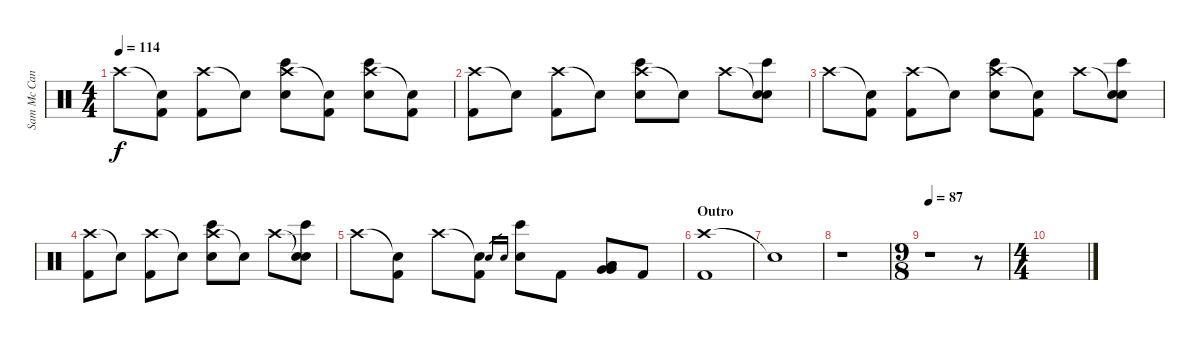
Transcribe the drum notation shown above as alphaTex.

\track ("Sam Mc Candless (Drums)" "Sam Mc Can") {instrument percussion}
\staff {score}
\articulation defaults
\ts (4 4)
\tempo 114
\clef neutral
\ks c "Crash high (hit)".8{dy f}
("Snare (hit)"{t} "Kick (hit) 2").8 ("Crash high (hit)" "Kick (hit) 2").8 "Snare (hit)"{t}.8 ("Crash high (hit)" "Electric Snare (hit)" "Bongo High (hit)").8 ("Snare (hit)"{t} "Kick (hit) 2").8 ("Crash high (hit)" "Electric Snare (hit)" "Bongo High (hit)").8 ("Snare (hit)"{t} "Kick (hit) 2").8 |
("Crash high (hit)" "Kick (hit) 2").8 "Snare (hit)"{t}.8 ("Crash high (hit)" "Kick (hit) 2").8 "Snare (hit)"{t}.8 ("Crash high (hit)" "Electric Snare (hit)" "Bongo High (hit)").8 "Snare (hit)"{t}.8 "Crash high (hit)".8 ("Snare (hit)"{t} "Electric Snare (hit)" "Bongo High (hit)").8 |
"Crash high (hit)".8 ("Snare (hit)"{t} "Kick (hit) 2").8 ("Crash high (hit)" "Kick (hit) 2").8 "Snare (hit)"{t}.8 ("Crash high (hit)" "Electric Snare (hit)" "Bongo High (hit)").8 ("Snare (hit)"{t} "Kick (hit) 2").8 "Crash high (hit)".8 ("Snare (hit)"{t} "Electric Snare (hit)" "Bongo High (hit)").8 |
("Crash high (hit)" "Kick (hit) 2").8 "Snare (hit)"{t}.8 ("Crash high (hit)" "Kick (hit) 2").8 "Snare (hit)"{t}.8 ("Crash high (hit)" "Electric Snare (hit)" "Bongo High (hit)").8 "Snare (hit)"{t}.8 "Crash high (hit)".8 ("Snare (hit)"{t} "Electric Snare (hit)" "Bongo High (hit)").8 |
"Crash high (hit)".8 ("Snare (hit)"{t} "Kick (hit) 2").8 "Crash high (hit)".8 ("Snare (hit)"{t} "Kick (hit) 2").8 "Electric Snare (hit)".16{gr} "Snare (hit)".16{gr} ("Electric Snare (hit)" "Bongo High (hit)").8 "Kick (hit) 2".8 ("Low Tom (hit)" "Low Tom (hit)" "Very Low Tom (hit)" "Very Low Tom (hit)").8 "Kick (hit) 2".8 |
\section ("" "Outro")
("Crash high (hit)" "Kick (hit) 2").1 |
"Snare (hit)"{t}.1 |
r.1 |
\ts (9 8)
\tempo 87
r.1 r.8 |
\ts (4 4)
